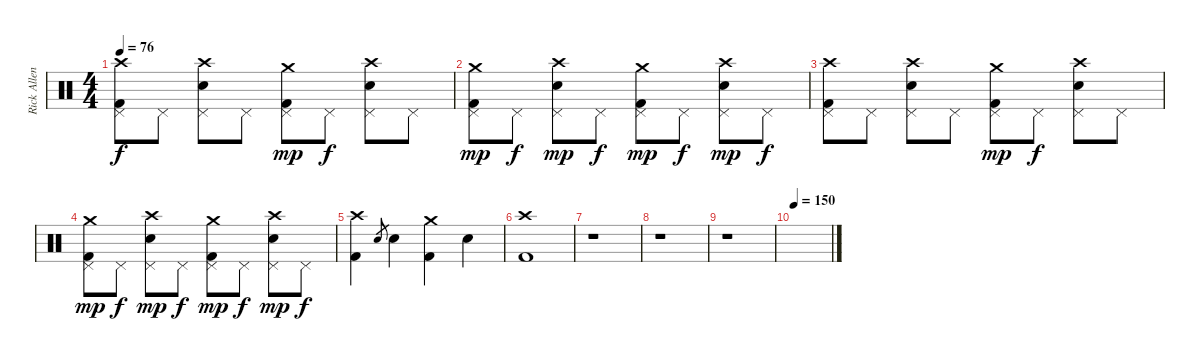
\track ("Rick Allen" "Rick Allen") {instrument percussion}
\staff {score}
\articulation defaults
\ts (4 4)
\tempo 76
\clef neutral
\ks c
("Crash high (hit)" "Pedal Hi-Hat (hit)" "Kick (hit) 2").8{dy f} "Pedal Hi-Hat (hit)".8 ("Crash high (hit)" "Pedal Hi-Hat (hit)" "Snare (hit) 2").8 "Pedal Hi-Hat (hit)".8 ("Crash medium (hit)" "Pedal Hi-Hat (hit)" "Kick (hit) 2").8{dy mp} "Pedal Hi-Hat (hit)".8{dy f} ("Crash high (hit)" "Pedal Hi-Hat (hit)" "Snare (hit) 2").8 "Pedal Hi-Hat (hit)".8 |
("Crash medium (hit)" "Pedal Hi-Hat (hit)" "Kick (hit) 2").8{dy mp} "Pedal Hi-Hat (hit)".8{dy f} ("Crash high (hit)" "Pedal Hi-Hat (hit)" "Snare (hit) 2").8{dy mp} "Pedal Hi-Hat (hit)".8{dy f} ("Crash medium (hit)" "Pedal Hi-Hat (hit)" "Kick (hit) 2").8{dy mp} "Pedal Hi-Hat (hit)".8{dy f} ("Crash high (hit)" "Pedal Hi-Hat (hit)" "Snare (hit) 2").8{dy mp} "Pedal Hi-Hat (hit)".8{dy f} |
("Crash high (hit)" "Pedal Hi-Hat (hit)" "Kick (hit) 2").8 "Pedal Hi-Hat (hit)".8 ("Crash high (hit)" "Pedal Hi-Hat (hit)" "Snare (hit) 2").8 "Pedal Hi-Hat (hit)".8 ("Crash medium (hit)" "Pedal Hi-Hat (hit)" "Kick (hit) 2").8{dy mp} "Pedal Hi-Hat (hit)".8{dy f} ("Crash high (hit)" "Pedal Hi-Hat (hit)" "Snare (hit) 2").8 "Pedal Hi-Hat (hit)".8 |
("Crash medium (hit)" "Pedal Hi-Hat (hit)" "Kick (hit) 2").8{dy mp} "Pedal Hi-Hat (hit)".8{dy f} ("Crash high (hit)" "Pedal Hi-Hat (hit)" "Snare (hit) 2").8{dy mp} "Pedal Hi-Hat (hit)".8{dy f} ("Crash medium (hit)" "Pedal Hi-Hat (hit)" "Kick (hit) 2").8{dy mp} "Pedal Hi-Hat (hit)".8{dy f} ("Crash high (hit)" "Pedal Hi-Hat (hit)" "Snare (hit) 2").8{dy mp} "Pedal Hi-Hat (hit)".8{dy f} |
("Crash high (hit)" "Kick (hit) 2").4 "Snare (hit) 2".8{gr} "Snare (hit) 2".4 ("Crash medium (hit)" "Kick (hit) 2").4 "Snare (hit) 2".4 |
("Crash high (hit)" "Kick (hit) 2").1 |
r.1 |
r.1 |
r.1 |
\tempo 150
